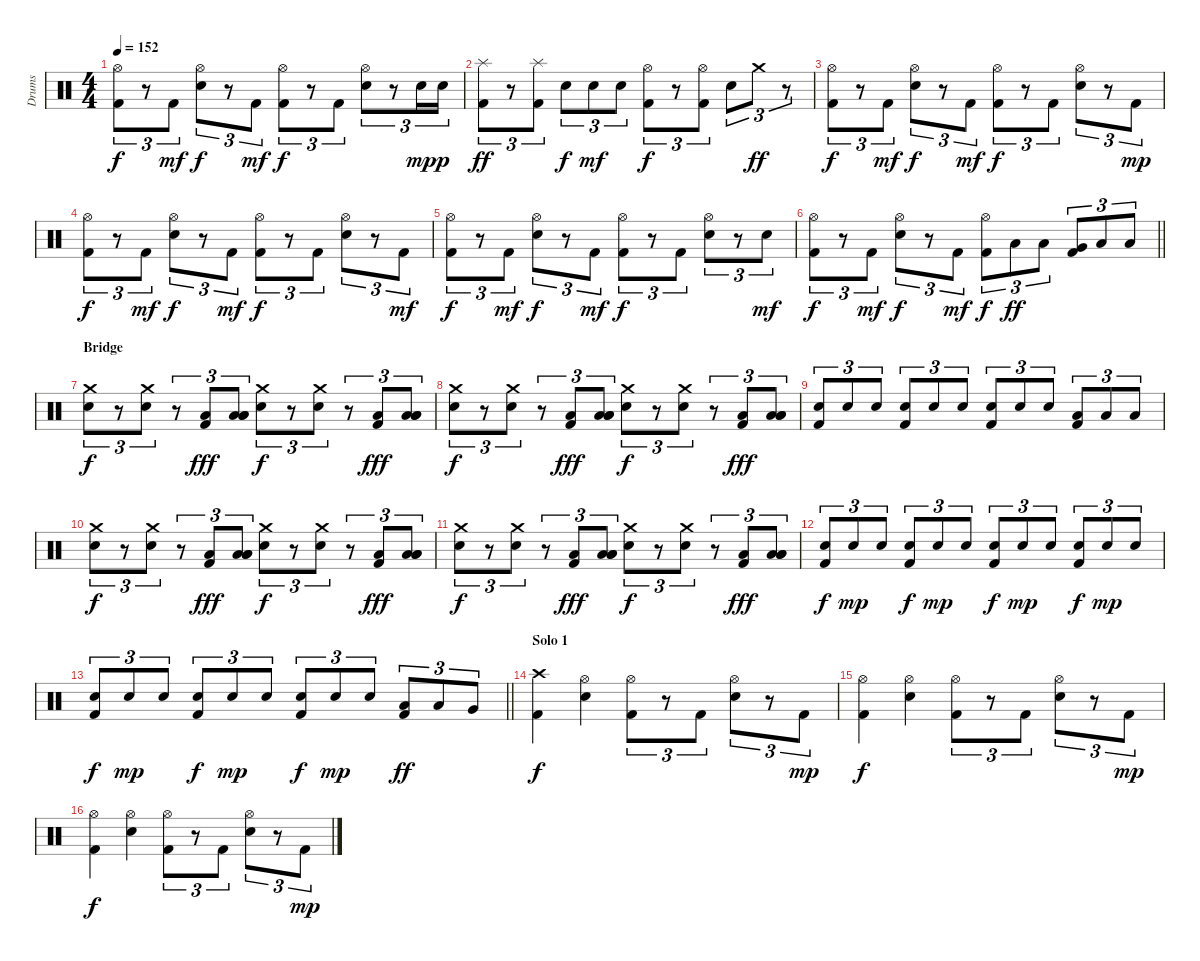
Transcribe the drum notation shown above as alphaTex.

\track ("Drums" "Drums") {instrument percussion}
\staff {score}
\articulation defaults
\ts (4 4)
\tempo 152
\clef neutral
\ks c
("Hi-Hat (open)" "Kick (hit) 2").8{tu (3 2) dy f} r.8{tu (3 2)} "Kick (hit) 2".8{tu (3 2) dy mf} ("Hi-Hat (open)" "Snare (hit) 2").8{tu (3 2) dy f} r.8{tu (3 2)} "Kick (hit) 2".8{tu (3 2) dy mf} ("Hi-Hat (open)" "Kick (hit) 2").8{tu (3 2) dy f} r.8{tu (3 2)} "Kick (hit) 2".8{tu (3 2)} ("Hi-Hat (open)" "Snare (hit) 2").8{tu (3 2)} r.8{tu (3 2)} "Snare (hit) 2".16{tu (3 2) dy mp} "Snare (hit) 2".16{tu (3 2) dy p} |
("Splash (hit)" "Kick (hit) 2").8{tu (3 2) dy ff} r.8{tu (3 2)} ("Splash (hit)" "Kick (hit) 2").8{tu (3 2)} "Snare (hit) 2".8{tu (3 2) dy f} "Snare (hit) 2".8{tu (3 2) dy mf} "Snare (hit) 2".8{tu (3 2)} ("Hi-Hat (open)" "Kick (hit) 2").8{tu (3 2) dy f} r.8{tu (3 2)} ("Hi-Hat (open)" "Kick (hit) 2").8{tu (3 2)} "Snare (hit) 2".8{tu (3 2)} "Crash medium (hit)".8{tu (3 2) dy ff} r.8{tu (3 2)} |
("Hi-Hat (open)" "Kick (hit) 2").8{tu (3 2) dy f} r.8{tu (3 2)} "Kick (hit) 2".8{tu (3 2) dy mf} ("Hi-Hat (open)" "Snare (hit) 2").8{tu (3 2) dy f} r.8{tu (3 2)} "Kick (hit) 2".8{tu (3 2) dy mf} ("Hi-Hat (open)" "Kick (hit) 2").8{tu (3 2) dy f} r.8{tu (3 2)} "Kick (hit) 2".8{tu (3 2)} ("Hi-Hat (open)" "Snare (hit) 2").8{tu (3 2)} r.8{tu (3 2)} "Kick (hit) 2".8{tu (3 2) dy mp} |
("Hi-Hat (open)" "Kick (hit) 2").8{tu (3 2) dy f} r.8{tu (3 2)} "Kick (hit) 2".8{tu (3 2) dy mf} ("Hi-Hat (open)" "Snare (hit) 2").8{tu (3 2) dy f} r.8{tu (3 2)} "Kick (hit) 2".8{tu (3 2) dy mf} ("Hi-Hat (open)" "Kick (hit) 2").8{tu (3 2) dy f} r.8{tu (3 2)} "Kick (hit) 2".8{tu (3 2)} ("Hi-Hat (open)" "Snare (hit) 2").8{tu (3 2)} r.8{tu (3 2)} "Kick (hit) 2".8{tu (3 2) dy mf} |
("Hi-Hat (open)" "Kick (hit) 2").8{tu (3 2) dy f} r.8{tu (3 2)} "Kick (hit) 2".8{tu (3 2) dy mf} ("Hi-Hat (open)" "Snare (hit) 2").8{tu (3 2) dy f} r.8{tu (3 2)} "Kick (hit) 2".8{tu (3 2) dy mf} ("Hi-Hat (open)" "Kick (hit) 2").8{tu (3 2) dy f} r.8{tu (3 2)} "Kick (hit) 2".8{tu (3 2)} ("Hi-Hat (open)" "Snare (hit) 2").8{tu (3 2)} r.8{tu (3 2)} "Snare (hit) 2".8{tu (3 2) dy mf} |
\barLineRight lightlight
("Hi-Hat (open)" "Kick (hit) 2").8{tu (3 2) dy f} r.8{tu (3 2)} "Kick (hit) 2".8{tu (3 2) dy mf} ("Hi-Hat (open)" "Snare (hit) 2").8{tu (3 2) dy f} r.8{tu (3 2)} "Kick (hit) 2".8{tu (3 2) dy mf} ("Hi-Hat (open)" "Kick (hit) 2").8{tu (3 2) dy f} "Low Tom (hit)".8{tu (3 2) dy ff} "Low Tom (hit)".8{tu (3 2)} ("Very Low Tom (hit)" "Kick (hit) 2").8{tu (3 2)} "Low Floor Tom (hit)".8{tu (3 2)} "Low Floor Tom (hit)".8{tu (3 2)} |
\section ("" "Bridge")
("Crash medium (hit)" "Snare (hit) 2").8{tu (3 2) dy f} r.8{tu (3 2)} ("Crash medium (hit)" "Snare (hit) 2").8{tu (3 2)} r.8{tu (3 2)} ("Kick (hit) 2" "Low Tom (hit)").8{tu (3 2) dy fff} ("Low Tom (hit)" "Low Tom (hit)" "Low Tom (hit)").8{tu (3 2)} ("Crash medium (hit)" "Snare (hit) 2").8{tu (3 2) dy f} r.8{tu (3 2)} ("Crash medium (hit)" "Snare (hit) 2").8{tu (3 2)} r.8{tu (3 2)} ("Kick (hit) 2" "Low Tom (hit)").8{tu (3 2) dy fff} ("Low Tom (hit)" "Low Tom (hit)" "Low Tom (hit)").8{tu (3 2)} |
("Crash medium (hit)" "Snare (hit) 2").8{tu (3 2) dy f} r.8{tu (3 2)} ("Crash medium (hit)" "Snare (hit) 2").8{tu (3 2)} r.8{tu (3 2)} ("Kick (hit) 2" "Low Tom (hit)").8{tu (3 2) dy fff} ("Low Tom (hit)" "Low Tom (hit)" "Low Tom (hit)").8{tu (3 2)} ("Crash medium (hit)" "Snare (hit) 2").8{tu (3 2) dy f} r.8{tu (3 2)} ("Crash medium (hit)" "Snare (hit) 2").8{tu (3 2)} r.8{tu (3 2)} ("Kick (hit) 2" "Low Tom (hit)").8{tu (3 2) dy fff} ("Low Tom (hit)" "Low Tom (hit)" "Low Tom (hit)").8{tu (3 2)} |
("Snare (hit) 2" "Kick (hit) 2").8{tu (3 2)} "Snare (hit) 2".8{tu (3 2)} "Snare (hit) 2".8{tu (3 2)} ("Snare (hit) 2" "Kick (hit) 2").8{tu (3 2)} "Snare (hit) 2".8{tu (3 2)} "Snare (hit) 2".8{tu (3 2)} ("Snare (hit) 2" "Kick (hit) 2").8{tu (3 2)} "Snare (hit) 2".8{tu (3 2)} "Snare (hit) 2".8{tu (3 2)} ("Low Tom (hit)" "Kick (hit) 2").8{tu (3 2)} "Low Tom (hit)".8{tu (3 2)} "Low Floor Tom (hit)".8{tu (3 2)} |
("Crash medium (hit)" "Snare (hit) 2").8{tu (3 2) dy f} r.8{tu (3 2)} ("Crash medium (hit)" "Snare (hit) 2").8{tu (3 2)} r.8{tu (3 2)} ("Kick (hit) 2" "Low Tom (hit)").8{tu (3 2) dy fff} ("Low Tom (hit)" "Low Tom (hit)" "Low Tom (hit)").8{tu (3 2)} ("Crash medium (hit)" "Snare (hit) 2").8{tu (3 2) dy f} r.8{tu (3 2)} ("Crash medium (hit)" "Snare (hit) 2").8{tu (3 2)} r.8{tu (3 2)} ("Kick (hit) 2" "Low Tom (hit)").8{tu (3 2) dy fff} ("Low Tom (hit)" "Low Tom (hit)" "Low Tom (hit)").8{tu (3 2)} |
("Crash medium (hit)" "Snare (hit) 2").8{tu (3 2) dy f} r.8{tu (3 2)} ("Crash medium (hit)" "Snare (hit) 2").8{tu (3 2)} r.8{tu (3 2)} ("Kick (hit) 2" "Low Tom (hit)").8{tu (3 2) dy fff} ("Low Tom (hit)" "Low Tom (hit)" "Low Tom (hit)").8{tu (3 2)} ("Crash medium (hit)" "Snare (hit) 2").8{tu (3 2) dy f} r.8{tu (3 2)} ("Crash medium (hit)" "Snare (hit) 2").8{tu (3 2)} r.8{tu (3 2)} ("Kick (hit) 2" "Low Tom (hit)").8{tu (3 2) dy fff} ("Low Tom (hit)" "Low Tom (hit)" "Low Tom (hit)").8{tu (3 2)} |
("Snare (hit) 2" "Kick (hit) 2").8{tu (3 2) dy f} "Snare (hit) 2".8{tu (3 2) dy mp} "Snare (hit) 2".8{tu (3 2)} ("Snare (hit) 2" "Kick (hit) 2").8{tu (3 2) dy f} "Snare (hit) 2".8{tu (3 2) dy mp} "Snare (hit) 2".8{tu (3 2)} ("Snare (hit) 2" "Kick (hit) 2").8{tu (3 2) dy f} "Snare (hit) 2".8{tu (3 2) dy mp} "Snare (hit) 2".8{tu (3 2)} ("Snare (hit) 2" "Kick (hit) 2").8{tu (3 2) dy f} "Snare (hit) 2".8{tu (3 2) dy mp} "Snare (hit) 2".8{tu (3 2)} |
\barLineRight lightlight
("Snare (hit) 2" "Kick (hit) 2").8{tu (3 2) dy f} "Snare (hit) 2".8{tu (3 2) dy mp} "Snare (hit) 2".8{tu (3 2)} ("Snare (hit) 2" "Kick (hit) 2").8{tu (3 2) dy f} "Snare (hit) 2".8{tu (3 2) dy mp} "Snare (hit) 2".8{tu (3 2)} ("Snare (hit) 2" "Kick (hit) 2").8{tu (3 2) dy f} "Snare (hit) 2".8{tu (3 2) dy mp} "Snare (hit) 2".8{tu (3 2)} ("Low Tom (hit)" "Kick (hit) 2").8{tu (3 2) dy ff} "Low Tom (hit)".8{tu (3 2)} "Very Low Tom (hit)".8{tu (3 2)} |
\section ("" "Solo 1")
("Crash high (hit)" "Kick (hit) 2").4{dy f} ("Hi-Hat (open)" "Snare (hit) 2").4 ("Hi-Hat (open)" "Kick (hit) 2").8{tu (3 2)} r.8{tu (3 2)} "Kick (hit) 2".8{tu (3 2)} ("Hi-Hat (open)" "Snare (hit) 2").8{tu (3 2)} r.8{tu (3 2)} "Kick (hit) 2".8{tu (3 2) dy mp} |
("Hi-Hat (open)" "Kick (hit) 2").4{dy f} ("Hi-Hat (open)" "Snare (hit) 2").4 ("Hi-Hat (open)" "Kick (hit) 2").8{tu (3 2)} r.8{tu (3 2)} "Kick (hit) 2".8{tu (3 2)} ("Hi-Hat (open)" "Snare (hit) 2").8{tu (3 2)} r.8{tu (3 2)} "Kick (hit) 2".8{tu (3 2) dy mp} |
("Hi-Hat (open)" "Kick (hit) 2").4{dy f} ("Hi-Hat (open)" "Snare (hit) 2").4 ("Hi-Hat (open)" "Kick (hit) 2").8{tu (3 2)} r.8{tu (3 2)} "Kick (hit) 2".8{tu (3 2)} ("Hi-Hat (open)" "Snare (hit) 2").8{tu (3 2)} r.8{tu (3 2)} "Kick (hit) 2".8{tu (3 2) dy mp}
